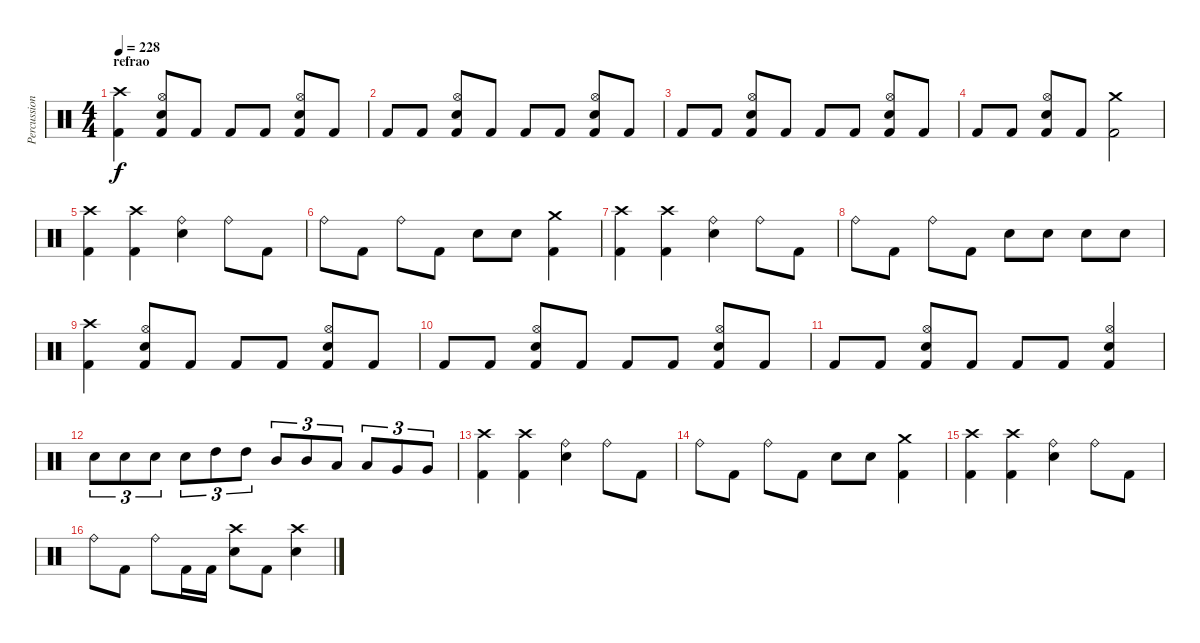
\track ("Percussion" "Percussion") {instrument percussion}
\staff {score}
\articulation defaults
\ts (4 4)
\section ("" "refrao")
\tempo 228
\clef neutral
\ks c
("Crash high (hit)" "Kick (hit) 2").4{dy f} ("Hi-Hat (open)" "Snare (hit) 2" "Kick (hit) 2").8 "Kick (hit) 2".8 "Kick (hit) 2".8 "Kick (hit) 2".8 ("Hi-Hat (open)" "Snare (hit) 2" "Kick (hit) 2").8 "Kick (hit) 2".8 |
"Kick (hit) 2".8 "Kick (hit) 2".8 ("Hi-Hat (open)" "Snare (hit) 2" "Kick (hit) 2").8 "Kick (hit) 2".8 "Kick (hit) 2".8 "Kick (hit) 2".8 ("Hi-Hat (open)" "Snare (hit) 2" "Kick (hit) 2").8 "Kick (hit) 2".8 |
"Kick (hit) 2".8 "Kick (hit) 2".8 ("Hi-Hat (open)" "Snare (hit) 2" "Kick (hit) 2").8 "Kick (hit) 2".8 "Kick (hit) 2".8 "Kick (hit) 2".8 ("Hi-Hat (open)" "Snare (hit) 2" "Kick (hit) 2").8 "Kick (hit) 2".8 |
"Kick (hit) 2".8 "Kick (hit) 2".8 ("Hi-Hat (open)" "Snare (hit) 2" "Kick (hit) 2").8 "Kick (hit) 2".8 ("Crash medium (hit)" "Kick (hit) 2").2 |
("Crash high (hit)" "Kick (hit) 2").4 ("Crash high (hit)" "Kick (hit) 2").4 ("Ride (bell)" "Snare (hit) 2").4 "Ride (bell)".8 "Kick (hit) 2".8 |
"Ride (bell)".8 "Kick (hit) 2".8 "Ride (bell)".8 "Kick (hit) 2".8 "Snare (hit) 2".8 "Snare (hit) 2".8 ("Crash medium (hit)" "Kick (hit) 2").4 |
("Crash high (hit)" "Kick (hit) 2").4 ("Crash high (hit)" "Kick (hit) 2").4 ("Ride (bell)" "Snare (hit) 2").4 "Ride (bell)".8 "Kick (hit) 2".8 |
"Ride (bell)".8 "Kick (hit) 2".8 "Ride (bell)".8 "Kick (hit) 2".8 "Snare (hit) 2".8 "Snare (hit) 2".8 "Snare (hit) 2".8 "Snare (hit) 2".8 |
("Crash high (hit)" "Kick (hit) 2").4 ("Hi-Hat (open)" "Snare (hit) 2" "Kick (hit) 2").8 "Kick (hit) 2".8 "Kick (hit) 2".8 "Kick (hit) 2".8 ("Hi-Hat (open)" "Snare (hit) 2" "Kick (hit) 2").8 "Kick (hit) 2".8 |
"Kick (hit) 2".8 "Kick (hit) 2".8 ("Hi-Hat (open)" "Snare (hit) 2" "Kick (hit) 2").8 "Kick (hit) 2".8 "Kick (hit) 2".8 "Kick (hit) 2".8 ("Hi-Hat (open)" "Snare (hit) 2" "Kick (hit) 2").8 "Kick (hit) 2".8 |
"Kick (hit) 2".8 "Kick (hit) 2".8 ("Hi-Hat (open)" "Snare (hit) 2" "Kick (hit) 2").8 "Kick (hit) 2".8 "Kick (hit) 2".8 "Kick (hit) 2".8 ("Hi-Hat (open)" "Snare (hit) 2" "Kick (hit) 2").4 |
"Snare (hit) 2".8{tu (3 2)} "Snare (hit) 2".8{tu (3 2)} "Snare (hit) 2".8{tu (3 2)} "Snare (hit) 2".8{tu (3 2)} "High Tom (hit)".8{tu (3 2)} "High Tom (hit)".8{tu (3 2)} "Mid Tom (hit)".8{tu (3 2)} "Mid Tom (hit)".8{tu (3 2)} "Low Tom (hit)".8{tu (3 2)} "Low Tom (hit)".8{tu (3 2)} "Very Low Tom (hit)".8{tu (3 2)} "Very Low Tom (hit)".8{tu (3 2)} |
("Crash high (hit)" "Kick (hit) 2").4 ("Crash high (hit)" "Kick (hit) 2").4 ("Ride (bell)" "Snare (hit) 2").4 "Ride (bell)".8 "Kick (hit) 2".8 |
"Ride (bell)".8 "Kick (hit) 2".8 "Ride (bell)".8 "Kick (hit) 2".8 "Snare (hit) 2".8 "Snare (hit) 2".8 ("Crash medium (hit)" "Kick (hit) 2").4 |
("Crash high (hit)" "Kick (hit) 2").4 ("Crash high (hit)" "Kick (hit) 2").4 ("Ride (bell)" "Snare (hit) 2").4 "Ride (bell)".8 "Kick (hit) 2".8 |
"Ride (bell)".8 "Kick (hit) 2".8 "Ride (bell)".8 "Kick (hit) 2".16 "Kick (hit) 2".16 ("Crash high (hit)" "Snare (hit) 2").8 "Kick (hit) 2".8 ("Crash high (hit)" "Snare (hit) 2").4
